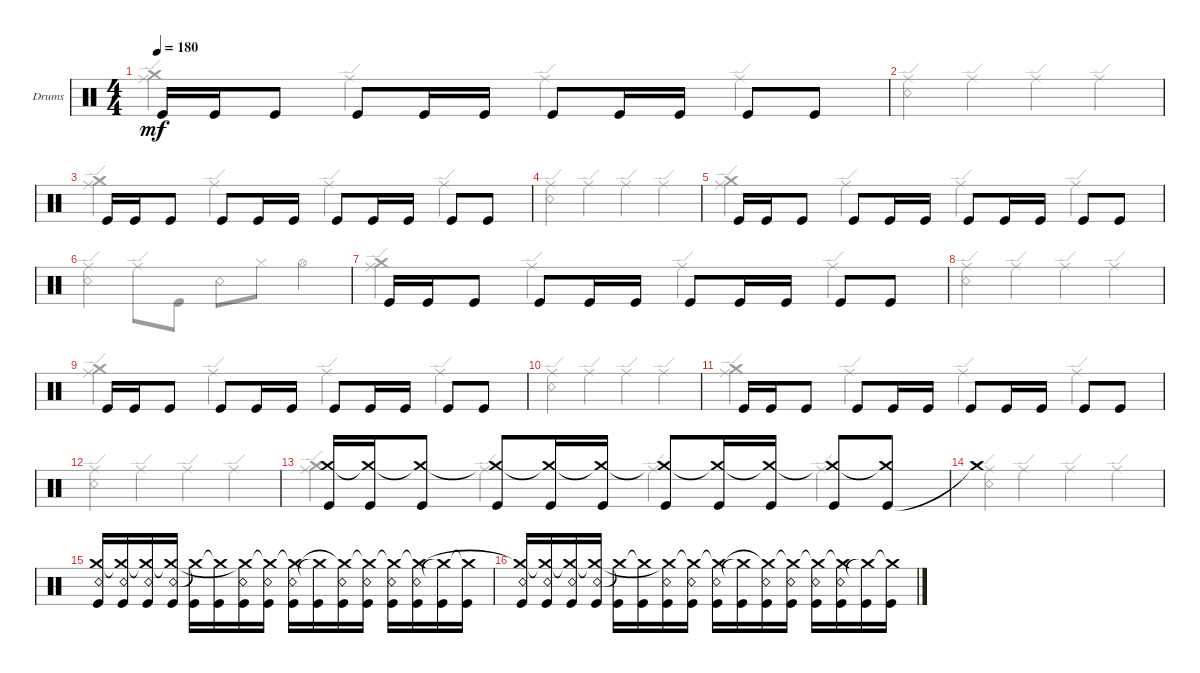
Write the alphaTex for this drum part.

\defaultSystemsLayout 4
\bracketExtendMode groupsimilarinstruments
\firstSystemTrackNameOrientation horizontal
\otherSystemsTrackNameOrientation horizontal
\track ("Drumkit" "Drums") {instrument percussion}
\staff {score}
\articulation defaults
\voice
\ts (4 4)
\tempo 180
\clef neutral
\ks c "Kick (hit)".16{dy mf} "Kick (hit)".16 "Kick (hit)".8 "Kick (hit)".8 "Kick (hit)".16 "Kick (hit)".16 "Kick (hit)".8 "Kick (hit)".16 "Kick (hit)".16 "Kick (hit)".8 "Kick (hit)".8
|
|
"Kick (hit)".16 "Kick (hit)".16 "Kick (hit)".8 "Kick (hit)".8 "Kick (hit)".16 "Kick (hit)".16 "Kick (hit)".8 "Kick (hit)".16 "Kick (hit)".16 "Kick (hit)".8 "Kick (hit)".8 |
|
"Kick (hit)".16 "Kick (hit)".16 "Kick (hit)".8 "Kick (hit)".8 "Kick (hit)".16 "Kick (hit)".16 "Kick (hit)".8 "Kick (hit)".16 "Kick (hit)".16 "Kick (hit)".8 "Kick (hit)".8 |
|
"Kick (hit)".16 "Kick (hit)".16 "Kick (hit)".8 "Kick (hit)".8 "Kick (hit)".16 "Kick (hit)".16 "Kick (hit)".8 "Kick (hit)".16 "Kick (hit)".16 "Kick (hit)".8 "Kick (hit)".8 |
|
"Kick (hit)".16 "Kick (hit)".16 "Kick (hit)".8 "Kick (hit)".8 "Kick (hit)".16 "Kick (hit)".16 "Kick (hit)".8 "Kick (hit)".16 "Kick (hit)".16 "Kick (hit)".8 "Kick (hit)".8 |
|
"Kick (hit)".16 "Kick (hit)".16 "Kick (hit)".8 "Kick (hit)".8 "Kick (hit)".16 "Kick (hit)".16 "Kick (hit)".8 "Kick (hit)".16 "Kick (hit)".16 "Kick (hit)".8 "Kick (hit)".8 |
|
("Kick (hit)" "Crash medium (hit)").16 ("Kick (hit)" "Crash medium (hit)"{t}).16 ("Kick (hit)" "Crash medium (hit)"{t}).8 ("Kick (hit)" "Crash medium (hit)"{t}).8 ("Kick (hit)" "Crash medium (hit)"{t}).16 ("Kick (hit)" "Crash medium (hit)"{t}).16 ("Kick (hit)" "Crash medium (hit)"{t}).8 ("Kick (hit)" "Crash medium (hit)"{t}).16 ("Kick (hit)" "Crash medium (hit)"{t}).16 ("Kick (hit)" "Crash medium (hit)"{t}).8 ("Kick (hit)" "Crash medium (hit)"{t}).8 |
"Crash medium (hit)"{t}.1 |
("Kick (hit)" "Snare (rim shot)" "Crash medium (hit)").16 ("Kick (hit)" "Snare (rim shot)" "Crash medium (hit)"{t}).16 ("Kick (hit)" "Snare (rim shot)" "Crash medium (hit)"{t}).16 ("Kick (hit)" "Snare (rim shot)" "Crash medium (hit)"{t}).16 ("Kick (hit)" "Crash medium (hit)"{t}).16 ("Kick (hit)" "Crash medium (hit)"{t}).16 ("Kick (hit)" "Snare (rim shot)" "Crash medium (hit)"{t}).16 ("Kick (hit)" "Snare (rim shot)" "Crash medium (hit)"{t}).16 ("Kick (hit)" "Snare (rim shot)" "Crash medium (hit)"{t}).16 ("Kick (hit)" "Crash medium (hit)"{t}).16 ("Kick (hit)" "Snare (rim shot)" "Crash medium (hit)"{t}).16 ("Kick (hit)" "Snare (rim shot)" "Crash medium (hit)"{t}).16 ("Kick (hit)" "Snare (rim shot)" "Crash medium (hit)"{t}).16 ("Kick (hit)" "Snare (rim shot)" "Crash medium (hit)"{t}).16 ("Kick (hit)" "Crash medium (hit)"{t}).16 ("Kick (hit)" "Crash medium (hit)"{t}).16 |
("Kick (hit)" "Snare (rim shot)" "Crash medium (hit)"{t}).16 ("Kick (hit)" "Snare (rim shot)" "Crash medium (hit)"{t}).16 ("Kick (hit)" "Snare (rim shot)" "Crash medium (hit)"{t}).16 ("Kick (hit)" "Snare (rim shot)" "Crash medium (hit)"{t}).16 ("Kick (hit)" "Crash medium (hit)"{t}).16 ("Kick (hit)" "Crash medium (hit)"{t}).16 ("Kick (hit)" "Snare (rim shot)" "Crash medium (hit)"{t}).16 ("Kick (hit)" "Snare (rim shot)" "Crash medium (hit)"{t}).16 ("Kick (hit)" "Snare (rim shot)" "Crash medium (hit)"{t}).16 ("Kick (hit)" "Crash medium (hit)"{t}).16 ("Kick (hit)" "Snare (rim shot)" "Crash medium (hit)"{t}).16 ("Kick (hit)" "Snare (rim shot)" "Crash medium (hit)"{t}).16 ("Kick (hit)" "Snare (rim shot)" "Crash medium (hit)"{t}).16 ("Kick (hit)" "Snare (rim shot)" "Crash medium (hit)"{t}).16 ("Kick (hit)" "Crash medium (hit)"{t}).16 ("Kick (hit)" "Crash medium (hit)"{t}).16
\voice
\clef neutral
\ottava regular
\simile none
\ks c
("Ride (edge)" "Crash medium (hit)").4{dy mf} "Ride (edge)".4 "Ride (edge)".4 "Ride (edge)".4 |
("Ride (edge)" "Snare (rim shot)").4 "Ride (edge)".4 "Ride (edge)".4 "Ride (edge)".4 |
("Ride (edge)" "Crash medium (hit)").4 "Ride (edge)".4 "Ride (edge)".4 "Ride (edge)".4 |
("Ride (edge)" "Snare (rim shot)").4 "Ride (edge)".4 "Ride (edge)".4 "Ride (edge)".4 |
("Ride (edge)" "Crash medium (hit)").4 "Ride (edge)".4 "Ride (edge)".4 "Ride (edge)".4 |
("Ride (edge)" "Snare (rim shot)").4 "Ride (edge)".8 "Kick (hit)".8 "Snare (rim shot)".8 "Hi-Hat (closed)".8 "Hi-Hat (open)".4 |
("Ride (edge)" "Crash medium (hit)").4 "Ride (edge)".4 "Ride (edge)".4 "Ride (edge)".4 |
("Ride (edge)" "Snare (rim shot)").4 "Ride (edge)".4 "Ride (edge)".4 "Ride (edge)".4 |
("Ride (edge)" "Crash medium (hit)").4 "Ride (edge)".4 "Ride (edge)".4 "Ride (edge)".4 |
("Ride (edge)" "Snare (rim shot)").4 "Ride (edge)".4 "Ride (edge)".4 "Ride (edge)".4 |
("Ride (edge)" "Crash medium (hit)").4 "Ride (edge)".4 "Ride (edge)".4 "Ride (edge)".4 |
("Ride (edge)" "Snare (rim shot)").4 "Ride (edge)".4 "Ride (edge)".4 "Ride (edge)".4 |
("Ride (edge)" "Crash medium (hit)").4 "Ride (edge)".4 "Ride (edge)".4 "Ride (edge)".4 |
("Ride (edge)" "Snare (rim shot)").4 "Ride (edge)".4 "Ride (edge)".4 "Ride (edge)".4 |
|
